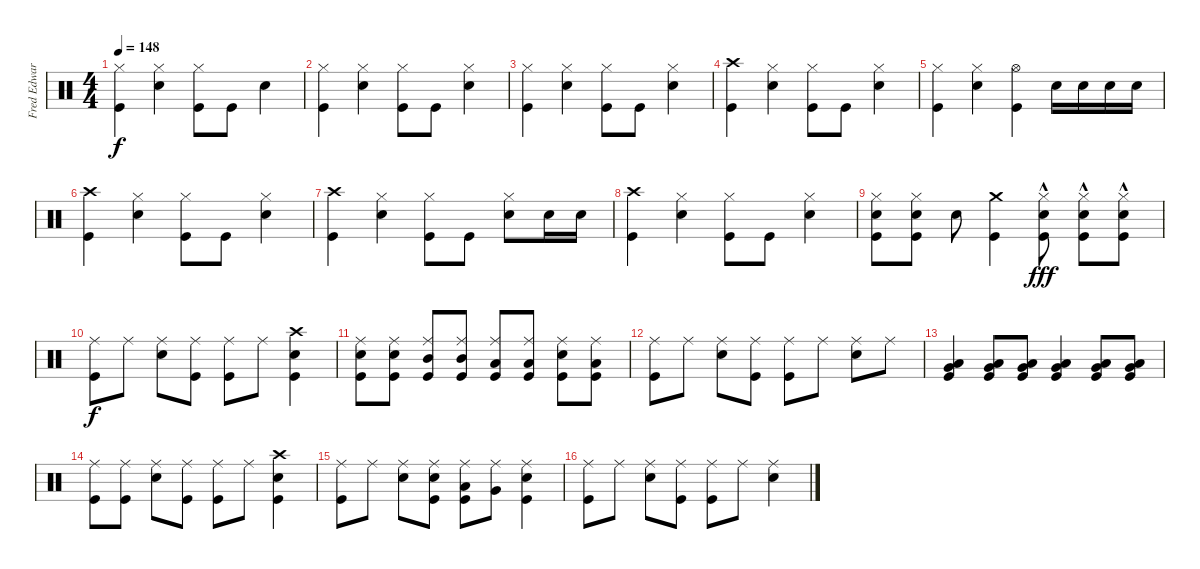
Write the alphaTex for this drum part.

\track ("Fred Edwards Drums" "Fred Edwar") {instrument percussion}
\staff {score}
\articulation defaults
\ts (4 4)
\tempo 148
\clef neutral
\ks c
("Hi-Hat (closed)" "Kick (hit)").4{dy f} ("Hi-Hat (closed)" "Snare (hit) 2").4 ("Hi-Hat (closed)" "Kick (hit)").8 "Kick (hit)".8 "Snare (hit) 2".4 |
("Hi-Hat (closed)" "Kick (hit)").4 ("Hi-Hat (closed)" "Snare (hit) 2").4 ("Hi-Hat (closed)" "Kick (hit)").8 "Kick (hit)".8 ("Hi-Hat (closed)" "Snare (hit) 2").4 |
("Hi-Hat (closed)" "Kick (hit)").4 ("Hi-Hat (closed)" "Snare (hit) 2").4 ("Hi-Hat (closed)" "Kick (hit)").8 "Kick (hit)".8 ("Hi-Hat (closed)" "Snare (hit) 2").4 |
("Crash high (hit)" "Kick (hit)").4 ("Hi-Hat (closed)" "Snare (hit) 2").4 ("Hi-Hat (closed)" "Kick (hit)").8 "Kick (hit)".8 ("Hi-Hat (closed)" "Snare (hit) 2").4 |
("Hi-Hat (closed)" "Kick (hit)").4 ("Hi-Hat (closed)" "Snare (hit) 2").4 ("Hi-Hat (open)" "Kick (hit)").4 "Snare (hit) 2".16 "Snare (hit) 2".16 "Snare (hit) 2".16 "Snare (hit) 2".16 |
("Crash high (hit)" "Kick (hit)").4 ("Hi-Hat (closed)" "Snare (hit) 2").4 ("Hi-Hat (closed)" "Kick (hit)").8 "Kick (hit)".8 ("Hi-Hat (closed)" "Snare (hit) 2").4 |
("Crash high (hit)" "Kick (hit)").4 ("Hi-Hat (closed)" "Snare (hit) 2").4 ("Hi-Hat (closed)" "Kick (hit)").8 "Kick (hit)".8 ("Hi-Hat (closed)" "Snare (hit) 2").8 "Snare (hit) 2".16 "Snare (hit) 2".16 |
("Crash high (hit)" "Kick (hit)").4 ("Hi-Hat (closed)" "Snare (hit) 2").4 ("Hi-Hat (closed)" "Kick (hit)").8 "Kick (hit)".8 ("Hi-Hat (closed)" "Snare (hit) 2").4 |
("Hi-Hat (closed)" "Snare (hit) 2" "Kick (hit)").8 ("Hi-Hat (closed)" "Snare (hit) 2" "Kick (hit)").8 "Snare (hit) 2".8 ("Crash medium (hit)" "Kick (hit)").4 ("Hi-Hat (closed)"{hac} "Snare (hit) 2" "Kick (hit)").8{dy fff} ("Hi-Hat (closed)"{hac} "Snare (hit) 2" "Kick (hit)").8 ("Hi-Hat (closed)"{hac} "Snare (hit) 2" "Kick (hit)").8 |
("Ride (middle)" "Kick (hit)").8{dy f} "Ride (middle)".8 ("Ride (middle)" "Snare (hit) 2").8 ("Ride (middle)" "Kick (hit)").8 ("Ride (middle)" "Kick (hit)").8 "Ride (middle)".8 ("Crash high (hit)" "Snare (hit) 2" "Kick (hit)").4 |
("Ride (middle)" "Snare (hit) 2" "Kick (hit)").8 ("Ride (middle)" "Snare (hit) 2" "Kick (hit)").8 ("Ride (middle)" "Mid Tom (hit)" "Kick (hit)").8 ("Ride (middle)" "Mid Tom (hit)" "Kick (hit)").8 ("Ride (middle)" "Low Tom (hit)" "Kick (hit)").8 ("Ride (middle)" "Low Tom (hit)" "Kick (hit)").8 ("Ride (middle)" "Snare (hit) 2" "Kick (hit)").8 ("Ride (middle)" "Low Tom (hit)" "Kick (hit)").8 |
("Ride (middle)" "Kick (hit)").8 "Ride (middle)".8 ("Ride (middle)" "Snare (hit) 2").8 ("Ride (middle)" "Kick (hit)").8 ("Ride (middle)" "Kick (hit)").8 "Ride (middle)".8 ("Ride (middle)" "Snare (hit) 2").8 "Ride (middle)".8 |
("Very Low Tom (hit)" "Low Floor Tom (hit)" "Kick (hit)").4 ("Very Low Tom (hit)" "Low Floor Tom (hit)" "Kick (hit)").8 ("Very Low Tom (hit)" "Low Floor Tom (hit)" "Kick (hit)").8 ("Very Low Tom (hit)" "Low Floor Tom (hit)" "Kick (hit)").4 ("Very Low Tom (hit)" "Low Floor Tom (hit)" "Kick (hit)").8 ("Very Low Tom (hit)" "Low Floor Tom (hit)" "Kick (hit)").8 |
("Ride (middle)" "Kick (hit)").8 ("Ride (middle)" "Kick (hit)").8 ("Ride (middle)" "Snare (hit) 2").8 ("Ride (middle)" "Kick (hit)").8 ("Ride (middle)" "Kick (hit)").8 "Ride (middle)".8 ("Crash high (hit)" "Snare (hit) 2" "Kick (hit)").4 |
("Ride (middle)" "Kick (hit)").8 "Ride (middle)".8 ("Ride (middle)" "Snare (hit) 2").8 ("Ride (middle)" "Snare (hit) 2" "Kick (hit)").8 ("Ride (middle)" "Low Tom (hit)" "Kick (hit)").8 ("Ride (middle)" "Very Low Tom (hit)").8 ("Ride (middle)" "Snare (hit) 2" "Kick (hit)").4 |
("Ride (middle)" "Kick (hit)").8 "Ride (middle)".8 ("Ride (middle)" "Snare (hit) 2").8 ("Ride (middle)" "Kick (hit)").8 ("Ride (middle)" "Kick (hit)").8 "Ride (middle)".8 ("Ride (middle)" "Snare (hit) 2").4
